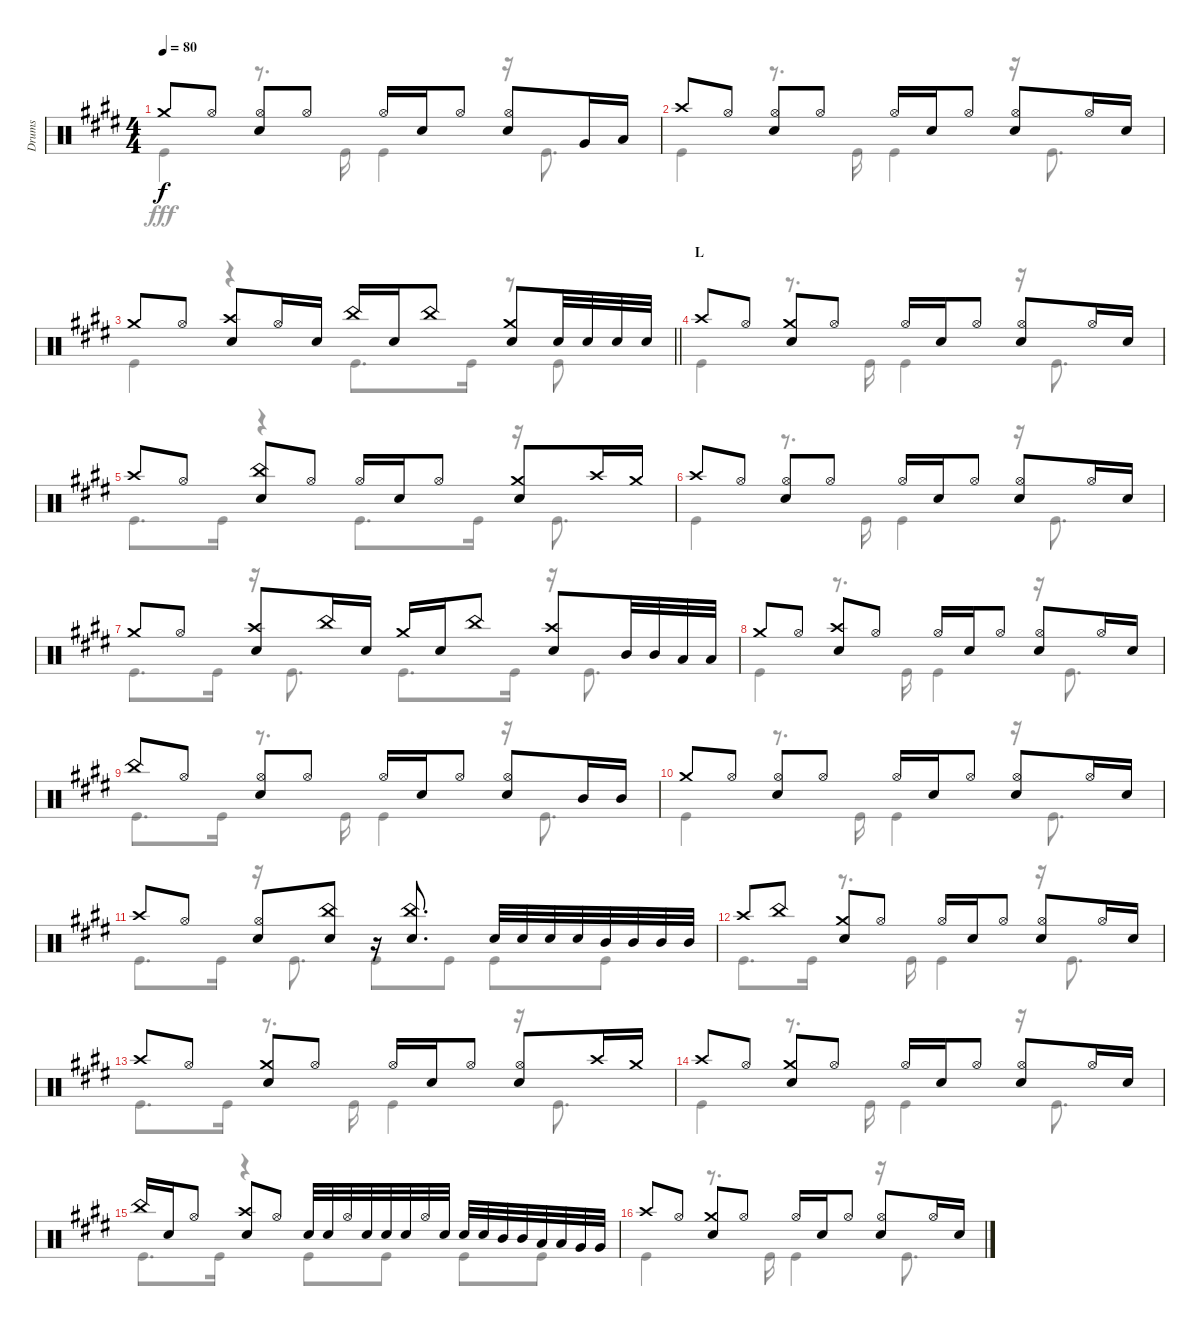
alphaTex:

\track ("Drums" "Drums") {instrument percussion}
\staff {score}
\articulation defaults
\voice
\ts (4 4)
\tempo 80
\clef neutral
\ks e "Crash medium (hit)".8{dy f} "Hi-Hat (open)".8
("Hi-Hat (open)" "Snare (hit) 2").8 "Hi-Hat (open)".8 "Hi-Hat (open)".16 "Snare (hit) 2".16 "Hi-Hat (open)".8 ("Hi-Hat (open)" "Snare (hit) 2").8 "Very Low Tom (hit)".16 "Low Tom (hit)".16 |
"Crash high (hit)".8 "Hi-Hat (open)".8 ("Hi-Hat (open)" "Snare (hit) 2").8 "Hi-Hat (open)".8 "Hi-Hat (open)".16 "Snare (hit) 2".16 "Hi-Hat (open)".8 ("Hi-Hat (open)" "Snare (hit) 2").8 "Hi-Hat (open)".16 "Snare (hit) 2".16 |
\barLineRight lightlight "Crash medium (hit)".8 "Hi-Hat (open)".8
("Crash high (hit)" "Snare (hit) 2").8 "Hi-Hat (open)".16 "Snare (hit) 2".16 "China (hit)".16 "Snare (hit) 2".16 "China (hit)".8 ("Crash medium (hit)" "Snare (hit) 2").8 "Snare (hit) 2".32 "Snare (hit) 2".32 "Snare (hit) 2".32 "Snare (hit) 2".32 |
\section ("" "L")
"Crash high (hit)".8 "Hi-Hat (open)".8 ("Crash medium (hit)" "Snare (hit) 2").8 "Hi-Hat (open)".8 "Hi-Hat (open)".16 "Snare (hit) 2".16 "Hi-Hat (open)".8 ("Hi-Hat (open)" "Snare (hit) 2").8 "Hi-Hat (open)".16 "Snare (hit) 2".16 |
"Crash high (hit)".8 "Hi-Hat (open)".8 ("China (hit)" "Snare (hit) 2").8 "Hi-Hat (open)".8 "Hi-Hat (open)".16 "Snare (hit) 2".16 "Hi-Hat (open)".8 ("Crash medium (hit)" "Snare (hit) 2").8 "Crash high (hit)".16 "Crash medium (hit)".16 |
"Crash high (hit)".8 "Hi-Hat (open)".8 ("Hi-Hat (open)" "Snare (hit) 2").8 "Hi-Hat (open)".8 "Hi-Hat (open)".16 "Snare (hit) 2".16 "Hi-Hat (open)".8 ("Hi-Hat (open)" "Snare (hit) 2").8 "Hi-Hat (open)".16 "Snare (hit) 2".16 |
"Crash medium (hit)".8 "Hi-Hat (open)".8 ("Crash high (hit)" "Snare (hit) 2").8 "China (hit)".16 "Snare (hit) 2".16 "Crash medium (hit)".16 "Snare (hit) 2".16 "China (hit)".8 ("Crash high (hit)" "Snare (hit) 2").8 "Mid Tom (hit)".32 "Mid Tom (hit)".32 "Low Tom (hit)".32 "Low Tom (hit)".32 |
"Crash medium (hit)".8 "Hi-Hat (open)".8 ("Crash high (hit)" "Snare (hit) 2").8 "Hi-Hat (open)".8 "Hi-Hat (open)".16 "Snare (hit) 2".16 "Hi-Hat (open)".8 ("Hi-Hat (open)" "Snare (hit) 2").8 "Hi-Hat (open)".16 "Snare (hit) 2".16 |
"China (hit)".8 "Hi-Hat (open)".8 ("Hi-Hat (open)" "Snare (hit) 2").8 "Hi-Hat (open)".8 "Hi-Hat (open)".16 "Snare (hit) 2".16 "Hi-Hat (open)".8 ("Hi-Hat (open)" "Snare (hit) 2").8 "Mid Tom (hit)".16 "Mid Tom (hit)".16 |
"Crash medium (hit)".8 "Hi-Hat (open)".8 ("Hi-Hat (open)" "Snare (hit) 2").8 "Hi-Hat (open)".8 "Hi-Hat (open)".16 "Snare (hit) 2".16 "Hi-Hat (open)".8 ("Hi-Hat (open)" "Snare (hit) 2").8 "Hi-Hat (open)".16 "Snare (hit) 2".16 |
"Crash high (hit)".8 "Hi-Hat (open)".8 ("Hi-Hat (open)" "Snare (hit) 2").8 ("China (hit)" "Snare (hit) 2").8 r.16 ("China (hit)" "Snare (hit) 2").8{d} "Snare (hit) 2".32 "Snare (hit) 2".32 "Snare (hit) 2".32 "Snare (hit) 2".32 "Mid Tom (hit)".32 "Mid Tom (hit)".32 "Mid Tom (hit)".32 "Mid Tom (hit)".32 |
"Crash high (hit)".8 "China (hit)".8 ("Crash medium (hit)" "Snare (hit) 2").8 "Hi-Hat (open)".8 "Hi-Hat (open)".16 "Snare (hit) 2".16 "Hi-Hat (open)".8 ("Hi-Hat (open)" "Snare (hit) 2").8 "Hi-Hat (open)".16 "Snare (hit) 2".16 |
"Crash high (hit)".8 "Hi-Hat (open)".8 ("Crash medium (hit)" "Snare (hit) 2").8 "Hi-Hat (open)".8 "Hi-Hat (open)".16 "Snare (hit) 2".16 "Hi-Hat (open)".8 ("Hi-Hat (open)" "Snare (hit) 2").8 "Crash high (hit)".16 "Crash medium (hit)".16 |
"Crash high (hit)".8 "Hi-Hat (open)".8 ("Crash medium (hit)" "Snare (hit) 2").8 "Hi-Hat (open)".8 "Hi-Hat (open)".16 "Snare (hit) 2".16 "Hi-Hat (open)".8 ("Hi-Hat (open)" "Snare (hit) 2").8 "Hi-Hat (open)".16 "Snare (hit) 2".16 |
"China (hit)".16 "Snare (hit) 2".16 "Hi-Hat (open)".8 ("Crash high (hit)" "Snare (hit) 2").8 "Hi-Hat (open)".8 "Snare (hit) 2".32 "Snare (hit) 2".32 "Hi-Hat (open)".32 "Snare (hit) 2".32 "Snare (hit) 2".32 "Snare (hit) 2".32 "Hi-Hat (open)".32 "Snare (hit) 2".32 "Snare (hit) 2".32 "Snare (hit) 2".32 "Mid Tom (hit)".32 "Mid Tom (hit)".32 "Low Tom (hit)".32 "Low Tom (hit)".32 "Very Low Tom (hit)".32 "Very Low Tom (hit)".32 |
"Crash high (hit)".8 "Hi-Hat (open)".8 ("Crash medium (hit)" "Snare (hit) 2").8 "Hi-Hat (open)".8 "Hi-Hat (open)".16 "Snare (hit) 2".16 "Hi-Hat (open)".8 ("Hi-Hat (open)" "Snare (hit) 2").8 "Hi-Hat (open)".16 "Snare (hit) 2".16
\voice
\clef neutral
\ottava regular
\simile none
\ks e "Kick (hit)".4{dy fff}
r.8{d} "Kick (hit)".16 "Kick (hit)".4 r.16 "Kick (hit)".8{d} |
"Kick (hit)".4 r.8{d} "Kick (hit)".16 "Kick (hit)".4 r.16 "Kick (hit)".8{d} |
\barLineRight lightlight "Kick (hit)".4
r.4 "Kick (hit)".8{d} "Kick (hit)".16 r.8 "Kick (hit)".8 |
"Kick (hit)".4 r.8{d} "Kick (hit)".16 "Kick (hit)".4 r.16 "Kick (hit)".8{d} |
"Kick (hit)".8{d} "Kick (hit)".16 r.4 "Kick (hit)".8{d} "Kick (hit)".16 r.16 "Kick (hit)".8{d} |
"Kick (hit)".4 r.8{d} "Kick (hit)".16 "Kick (hit)".4 r.16 "Kick (hit)".8{d} |
"Kick (hit)".8{d} "Kick (hit)".16 r.16 "Kick (hit)".8{d} "Kick (hit)".8{d} "Kick (hit)".16 r.16 "Kick (hit)".8{d} |
"Kick (hit)".4 r.8{d} "Kick (hit)".16 "Kick (hit)".4 r.16 "Kick (hit)".8{d} |
"Kick (hit)".8{d} "Kick (hit)".16 r.8{d} "Kick (hit)".16 "Kick (hit)".4 r.16 "Kick (hit)".8{d} |
"Kick (hit)".4 r.8{d} "Kick (hit)".16 "Kick (hit)".4 r.16 "Kick (hit)".8{d} |
"Kick (hit)".8{d} "Kick (hit)".16 r.16 "Kick (hit)".8{d} "Kick (hit)".8 "Kick (hit)".8 "Kick (hit)".8 "Kick (hit)".8 |
"Kick (hit)".8{d} "Kick (hit)".16 r.8{d} "Kick (hit)".16 "Kick (hit)".4 r.16 "Kick (hit)".8{d} |
"Kick (hit)".8{d} "Kick (hit)".16 r.8{d} "Kick (hit)".16 "Kick (hit)".4 r.16 "Kick (hit)".8{d} |
"Kick (hit)".4 r.8{d} "Kick (hit)".16 "Kick (hit)".4 r.16 "Kick (hit)".8{d} |
"Kick (hit)".8{d} "Kick (hit)".16 r.4 "Kick (hit)".8 "Kick (hit)".8 "Kick (hit)".8 "Kick (hit)".8 |
"Kick (hit)".4 r.8{d} "Kick (hit)".16 "Kick (hit)".4 r.16 "Kick (hit)".8{d}
